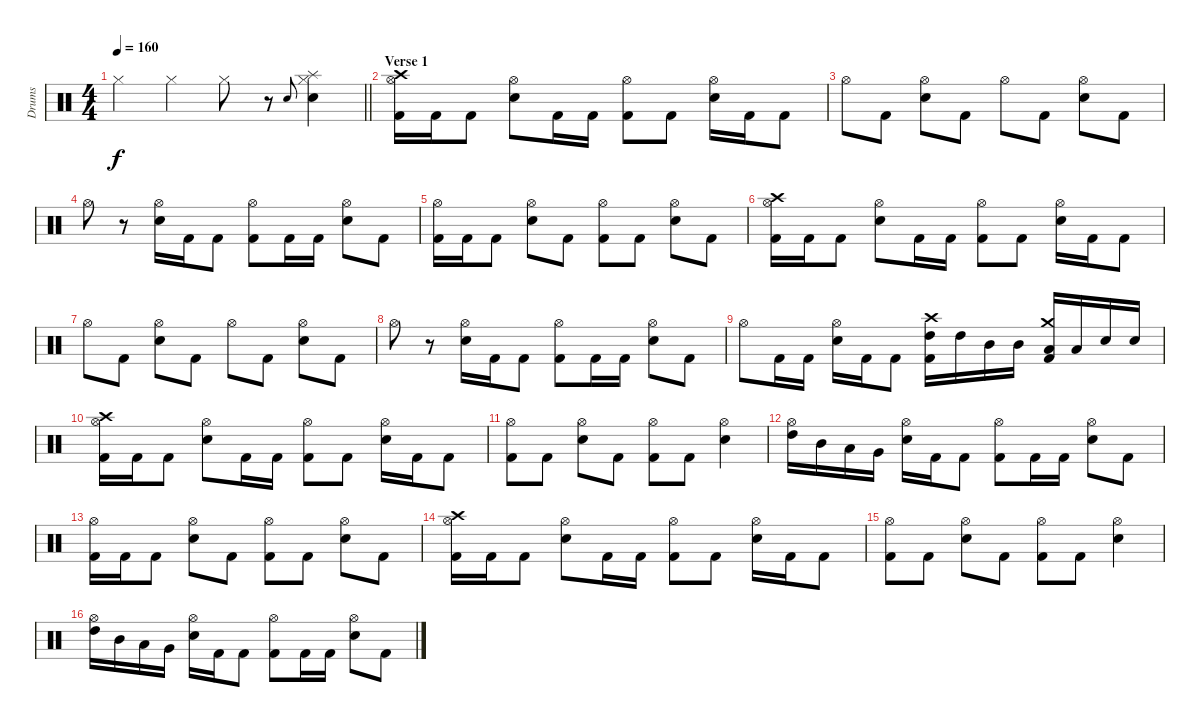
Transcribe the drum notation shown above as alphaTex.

\track ("Drums" "Drums") {instrument percussion}
\staff {score}
\articulation defaults
\ts (4 4)
\tempo 160
\clef neutral
\barLineRight lightlight
\ks c "Hi-Hat (closed)".4{dy f} "Hi-Hat (closed)".4 "Hi-Hat (closed)".8
r.8 "Snare (hit) 2".8{gr onbeat} ("Splash (hit)" "Hi-Hat (closed)" "Snare (hit) 2").4 |
\section ("" "Verse 1")
("Crash high (hit)" "Hi-Hat (open)" "Kick (hit) 2").16 "Kick (hit) 2".16 "Kick (hit) 2".8 ("Hi-Hat (open)" "Snare (hit) 2").8 "Kick (hit) 2".16 "Kick (hit) 2".16 ("Hi-Hat (open)" "Kick (hit) 2").8 "Kick (hit) 2".8 ("Hi-Hat (open)" "Snare (hit) 2").16 "Kick (hit) 2".16 "Kick (hit) 2".8 |
"Hi-Hat (open)".8 "Kick (hit) 2".8 ("Hi-Hat (open)" "Snare (hit) 2").8 "Kick (hit) 2".8 "Hi-Hat (open)".8 "Kick (hit) 2".8 ("Hi-Hat (open)" "Snare (hit) 2").8 "Kick (hit) 2".8 |
"Hi-Hat (open)".8 r.8 ("Hi-Hat (open)" "Snare (hit) 2").16 "Kick (hit) 2".16 "Kick (hit) 2".8 ("Hi-Hat (open)" "Kick (hit) 2").8 "Kick (hit) 2".16 "Kick (hit) 2".16 ("Hi-Hat (open)" "Snare (hit) 2").8 "Kick (hit) 2".8 |
("Hi-Hat (open)" "Kick (hit) 2").16 "Kick (hit) 2".16 "Kick (hit) 2".8 ("Hi-Hat (open)" "Snare (hit) 2").8 "Kick (hit) 2".8 ("Hi-Hat (open)" "Kick (hit) 2").8 "Kick (hit) 2".8 ("Hi-Hat (open)" "Snare (hit) 2").8 "Kick (hit) 2".8 |
("Crash high (hit)" "Hi-Hat (open)" "Kick (hit) 2").16 "Kick (hit) 2".16 "Kick (hit) 2".8 ("Hi-Hat (open)" "Snare (hit) 2").8 "Kick (hit) 2".16 "Kick (hit) 2".16 ("Hi-Hat (open)" "Kick (hit) 2").8 "Kick (hit) 2".8 ("Hi-Hat (open)" "Snare (hit) 2").16 "Kick (hit) 2".16 "Kick (hit) 2".8 |
"Hi-Hat (open)".8 "Kick (hit) 2".8 ("Hi-Hat (open)" "Snare (hit) 2").8 "Kick (hit) 2".8 "Hi-Hat (open)".8 "Kick (hit) 2".8 ("Hi-Hat (open)" "Snare (hit) 2").8 "Kick (hit) 2".8 |
"Hi-Hat (open)".8 r.8 ("Hi-Hat (open)" "Snare (hit) 2").16 "Kick (hit) 2".16 "Kick (hit) 2".8 ("Hi-Hat (open)" "Kick (hit) 2").8 "Kick (hit) 2".16 "Kick (hit) 2".16 ("Hi-Hat (open)" "Snare (hit) 2").8 "Kick (hit) 2".8 |
"Hi-Hat (open)".8 "Kick (hit) 2".16 "Kick (hit) 2".16 ("Hi-Hat (open)" "Snare (hit) 2").16 "Kick (hit) 2".16 "Kick (hit) 2".8 ("Crash high (hit)" "High Tom (hit)" "Kick (hit) 2").16 "High Tom (hit)".16 "Mid Tom (hit)".16 "Mid Tom (hit)".16 ("Crash medium (hit)" "Low Tom (hit)" "Kick (hit) 2").16 "Low Tom (hit)".16 "Snare (hit) 2".16 "Snare (hit) 2".16 |
("Crash high (hit)" "Hi-Hat (open)" "Kick (hit) 2").16 "Kick (hit) 2".16 "Kick (hit) 2".8 ("Hi-Hat (open)" "Snare (hit) 2").8 "Kick (hit) 2".16 "Kick (hit) 2".16 ("Hi-Hat (open)" "Kick (hit) 2").8 "Kick (hit) 2".8 ("Hi-Hat (open)" "Snare (hit) 2").16 "Kick (hit) 2".16 "Kick (hit) 2".8 |
("Hi-Hat (open)" "Kick (hit) 2").8 "Kick (hit) 2".8 ("Hi-Hat (open)" "Snare (hit) 2").8 "Kick (hit) 2".8 ("Hi-Hat (open)" "Kick (hit) 2").8 "Kick (hit) 2".8 ("Hi-Hat (open)" "Snare (hit) 2").4 |
("Hi-Hat (open)" "High Tom (hit)").16 "Mid Tom (hit)".16 "Low Tom (hit)".16 "Very Low Tom (hit)".16 ("Hi-Hat (open)" "Snare (hit) 2").16 "Kick (hit) 2".16 "Kick (hit) 2".8 ("Hi-Hat (open)" "Kick (hit) 2").8 "Kick (hit) 2".16 "Kick (hit) 2".16 ("Hi-Hat (open)" "Snare (hit) 2").8 "Kick (hit) 2".8 |
("Hi-Hat (open)" "Kick (hit) 2").16 "Kick (hit) 2".16 "Kick (hit) 2".8 ("Hi-Hat (open)" "Snare (hit) 2").8 "Kick (hit) 2".8 ("Hi-Hat (open)" "Kick (hit) 2").8 "Kick (hit) 2".8 ("Hi-Hat (open)" "Snare (hit) 2").8 "Kick (hit) 2".8 |
("Crash high (hit)" "Hi-Hat (open)" "Kick (hit) 2").16 "Kick (hit) 2".16 "Kick (hit) 2".8 ("Hi-Hat (open)" "Snare (hit) 2").8 "Kick (hit) 2".16 "Kick (hit) 2".16 ("Hi-Hat (open)" "Kick (hit) 2").8 "Kick (hit) 2".8 ("Hi-Hat (open)" "Snare (hit) 2").16 "Kick (hit) 2".16 "Kick (hit) 2".8 |
("Hi-Hat (open)" "Kick (hit) 2").8 "Kick (hit) 2".8 ("Hi-Hat (open)" "Snare (hit) 2").8 "Kick (hit) 2".8 ("Hi-Hat (open)" "Kick (hit) 2").8 "Kick (hit) 2".8 ("Hi-Hat (open)" "Snare (hit) 2").4 |
("Hi-Hat (open)" "High Tom (hit)").16 "Mid Tom (hit)".16 "Low Tom (hit)".16 "Very Low Tom (hit)".16 ("Hi-Hat (open)" "Snare (hit) 2").16 "Kick (hit) 2".16 "Kick (hit) 2".8 ("Hi-Hat (open)" "Kick (hit) 2").8 "Kick (hit) 2".16 "Kick (hit) 2".16 ("Hi-Hat (open)" "Snare (hit) 2").8 "Kick (hit) 2".8
